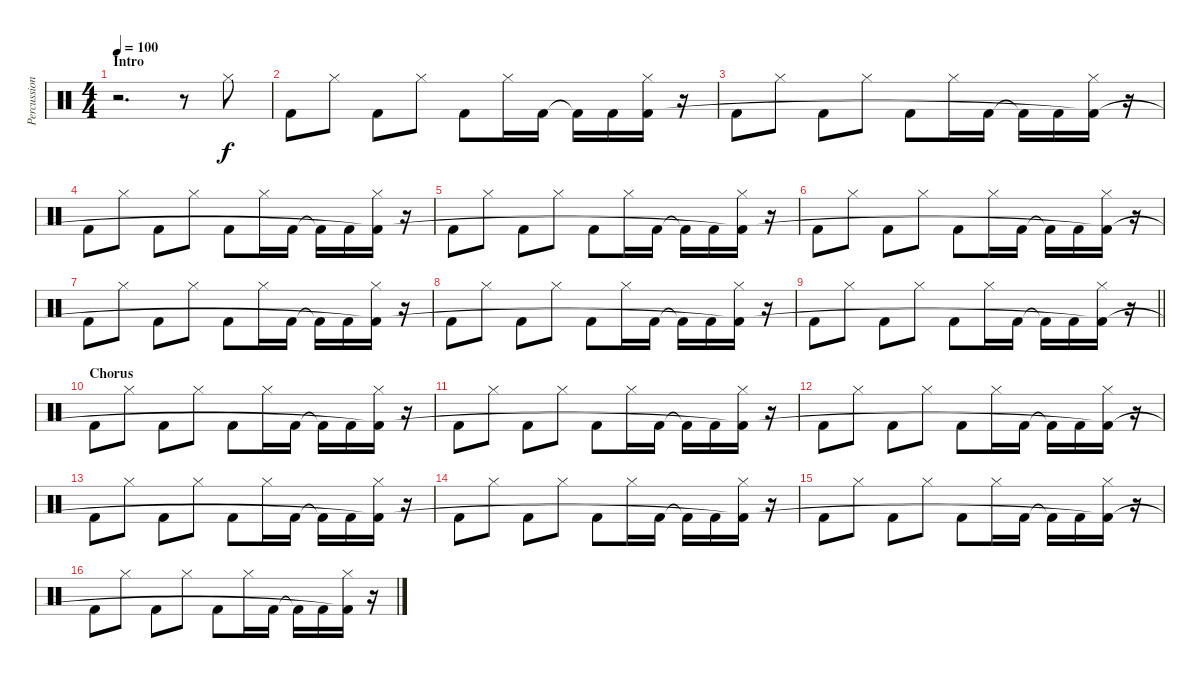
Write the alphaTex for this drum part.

\track ("Percussion" "Percussion") {instrument percussion}
\staff {score}
\articulation defaults
\ts (4 4)
\section ("" "Intro")
\tempo 100
\clef neutral
\ks c
r.2{d dy f} r.8 "Hi-Hat (closed)".8 |
"Kick (hit) 2".8 "Hi-Hat (closed)".8 "Kick (hit) 2".8 "Hi-Hat (closed)".8 "Kick (hit) 2".8 "Hi-Hat (closed)".16 "Kick (hit) 2".16 "Kick (hit) 2"{t}.16 "Kick (hit) 2".16 ("Hi-Hat (closed)" "Kick (hit) 2").16 r.16 |
"Kick (hit) 2".8 "Hi-Hat (closed)".8 "Kick (hit) 2".8 "Hi-Hat (closed)".8 "Kick (hit) 2".8 "Hi-Hat (closed)".16 "Kick (hit) 2".16 "Kick (hit) 2"{t}.16 "Kick (hit) 2".16 ("Hi-Hat (closed)" "Kick (hit) 2"{t}).16 r.16 |
"Kick (hit) 2".8 "Hi-Hat (closed)".8 "Kick (hit) 2".8 "Hi-Hat (closed)".8 "Kick (hit) 2".8 "Hi-Hat (closed)".16 "Kick (hit) 2".16 "Kick (hit) 2"{t}.16 "Kick (hit) 2".16 ("Hi-Hat (closed)" "Kick (hit) 2"{t}).16 r.16 |
"Kick (hit) 2".8 "Hi-Hat (closed)".8 "Kick (hit) 2".8 "Hi-Hat (closed)".8 "Kick (hit) 2".8 "Hi-Hat (closed)".16 "Kick (hit) 2".16 "Kick (hit) 2"{t}.16 "Kick (hit) 2".16 ("Hi-Hat (closed)" "Kick (hit) 2"{t}).16 r.16 |
"Kick (hit) 2".8 "Hi-Hat (closed)".8 "Kick (hit) 2".8 "Hi-Hat (closed)".8 "Kick (hit) 2".8 "Hi-Hat (closed)".16 "Kick (hit) 2".16 "Kick (hit) 2"{t}.16 "Kick (hit) 2".16 ("Hi-Hat (closed)" "Kick (hit) 2"{t}).16 r.16 |
"Kick (hit) 2".8 "Hi-Hat (closed)".8 "Kick (hit) 2".8 "Hi-Hat (closed)".8 "Kick (hit) 2".8 "Hi-Hat (closed)".16 "Kick (hit) 2".16 "Kick (hit) 2"{t}.16 "Kick (hit) 2".16 ("Hi-Hat (closed)" "Kick (hit) 2"{t}).16 r.16 |
"Kick (hit) 2".8 "Hi-Hat (closed)".8 "Kick (hit) 2".8 "Hi-Hat (closed)".8 "Kick (hit) 2".8 "Hi-Hat (closed)".16 "Kick (hit) 2".16 "Kick (hit) 2"{t}.16 "Kick (hit) 2".16 ("Hi-Hat (closed)" "Kick (hit) 2"{t}).16 r.16 |
\barLineRight lightlight "Kick (hit) 2".8 "Hi-Hat (closed)".8 "Kick (hit) 2".8 "Hi-Hat (closed)".8 "Kick (hit) 2".8 "Hi-Hat (closed)".16 "Kick (hit) 2".16 "Kick (hit) 2"{t}.16 "Kick (hit) 2".16
("Hi-Hat (closed)" "Kick (hit) 2"{t}).16 r.16 |
\section ("" "Chorus")
"Kick (hit) 2".8 "Hi-Hat (closed)".8 "Kick (hit) 2".8 "Hi-Hat (closed)".8 "Kick (hit) 2".8 "Hi-Hat (closed)".16 "Kick (hit) 2".16 "Kick (hit) 2"{t}.16 "Kick (hit) 2".16 ("Hi-Hat (closed)" "Kick (hit) 2"{t}).16 r.16 |
"Kick (hit) 2".8 "Hi-Hat (closed)".8 "Kick (hit) 2".8 "Hi-Hat (closed)".8 "Kick (hit) 2".8 "Hi-Hat (closed)".16 "Kick (hit) 2".16 "Kick (hit) 2"{t}.16 "Kick (hit) 2".16 ("Hi-Hat (closed)" "Kick (hit) 2"{t}).16 r.16 |
"Kick (hit) 2".8 "Hi-Hat (closed)".8 "Kick (hit) 2".8 "Hi-Hat (closed)".8 "Kick (hit) 2".8 "Hi-Hat (closed)".16 "Kick (hit) 2".16 "Kick (hit) 2"{t}.16 "Kick (hit) 2".16 ("Hi-Hat (closed)" "Kick (hit) 2"{t}).16 r.16 |
"Kick (hit) 2".8 "Hi-Hat (closed)".8 "Kick (hit) 2".8 "Hi-Hat (closed)".8 "Kick (hit) 2".8 "Hi-Hat (closed)".16 "Kick (hit) 2".16 "Kick (hit) 2"{t}.16 "Kick (hit) 2".16 ("Hi-Hat (closed)" "Kick (hit) 2"{t}).16 r.16 |
"Kick (hit) 2".8 "Hi-Hat (closed)".8 "Kick (hit) 2".8 "Hi-Hat (closed)".8 "Kick (hit) 2".8 "Hi-Hat (closed)".16 "Kick (hit) 2".16 "Kick (hit) 2"{t}.16 "Kick (hit) 2".16 ("Hi-Hat (closed)" "Kick (hit) 2"{t}).16 r.16 |
"Kick (hit) 2".8 "Hi-Hat (closed)".8 "Kick (hit) 2".8 "Hi-Hat (closed)".8 "Kick (hit) 2".8 "Hi-Hat (closed)".16 "Kick (hit) 2".16 "Kick (hit) 2"{t}.16 "Kick (hit) 2".16 ("Hi-Hat (closed)" "Kick (hit) 2"{t}).16 r.16 |
"Kick (hit) 2".8 "Hi-Hat (closed)".8 "Kick (hit) 2".8 "Hi-Hat (closed)".8 "Kick (hit) 2".8 "Hi-Hat (closed)".16 "Kick (hit) 2".16 "Kick (hit) 2"{t}.16 "Kick (hit) 2".16 ("Hi-Hat (closed)" "Kick (hit) 2"{t}).16 r.16
